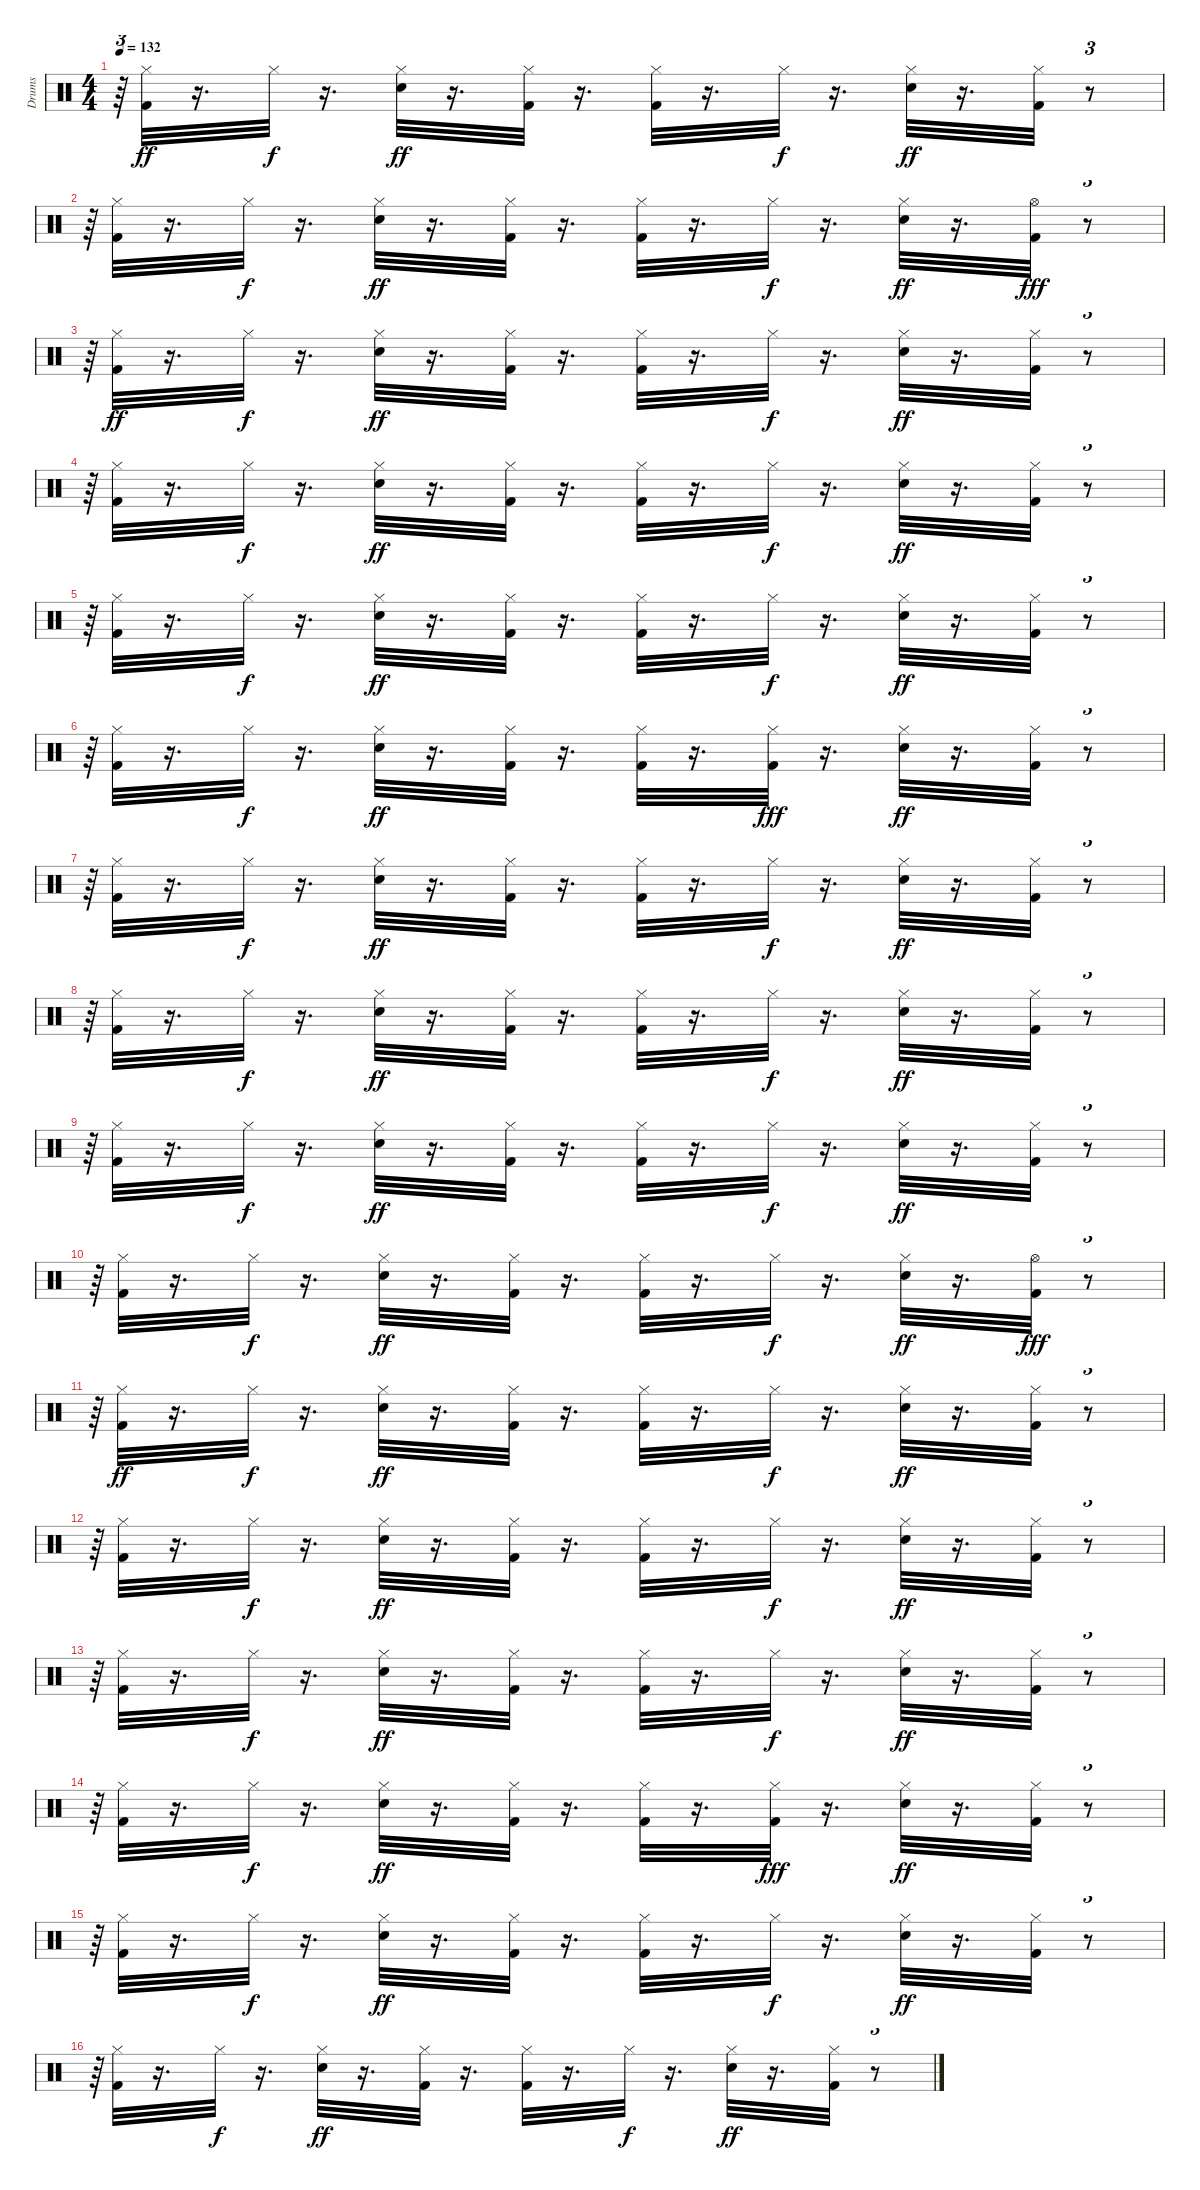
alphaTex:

\track ("Drums" "Drums") {instrument percussion}
\staff {score}
\articulation defaults
\ts (4 4)
\tempo 132
\clef neutral
\ks c
r.64{tu (3 2) dy ff} ("Kick (hit) 2" "Hi-Hat (closed)").32 r.16{d} "Hi-Hat (closed)".32{dy f} r.16{d} ("Snare (hit) 2" "Hi-Hat (closed)").32{dy ff} r.16{d} ("Kick (hit) 2" "Hi-Hat (closed)").32 r.16{d} ("Kick (hit) 2" "Hi-Hat (closed)").32 r.16{d} "Hi-Hat (closed)".32{dy f} r.16{d} ("Snare (hit) 2" "Hi-Hat (closed)").32{dy ff} r.16{d} ("Kick (hit) 2" "Hi-Hat (closed)").32 r.8{tu (3 2)} |
r.64{tu (3 2)} ("Kick (hit) 2" "Hi-Hat (closed)").32 r.16{d} "Hi-Hat (closed)".32{dy f} r.16{d} ("Snare (hit) 2" "Hi-Hat (closed)").32{dy ff} r.16{d} ("Kick (hit) 2" "Hi-Hat (closed)").32 r.16{d} ("Kick (hit) 2" "Hi-Hat (closed)").32 r.16{d} "Hi-Hat (closed)".32{dy f} r.16{d} ("Snare (hit) 2" "Hi-Hat (closed)").32{dy ff} r.16{d} ("Kick (hit) 2" "Hi-Hat (open)").32{dy fff} r.8{tu (3 2)} |
r.64{tu (3 2)} ("Kick (hit) 2" "Hi-Hat (closed)").32{dy ff} r.16{d} "Hi-Hat (closed)".32{dy f} r.16{d} ("Snare (hit) 2" "Hi-Hat (closed)").32{dy ff} r.16{d} ("Kick (hit) 2" "Hi-Hat (closed)").32 r.16{d} ("Kick (hit) 2" "Hi-Hat (closed)").32 r.16{d} "Hi-Hat (closed)".32{dy f} r.16{d} ("Snare (hit) 2" "Hi-Hat (closed)").32{dy ff} r.16{d} ("Kick (hit) 2" "Hi-Hat (closed)").32 r.8{tu (3 2)} |
r.64{tu (3 2)} ("Kick (hit) 2" "Hi-Hat (closed)").32 r.16{d} "Hi-Hat (closed)".32{dy f} r.16{d} ("Snare (hit) 2" "Hi-Hat (closed)").32{dy ff} r.16{d} ("Kick (hit) 2" "Hi-Hat (closed)").32 r.16{d} ("Kick (hit) 2" "Hi-Hat (closed)").32 r.16{d} "Hi-Hat (closed)".32{dy f} r.16{d} ("Snare (hit) 2" "Hi-Hat (closed)").32{dy ff} r.16{d} ("Kick (hit) 2" "Hi-Hat (closed)").32 r.8{tu (3 2)} |
r.64{tu (3 2)} ("Kick (hit) 2" "Hi-Hat (closed)").32 r.16{d} "Hi-Hat (closed)".32{dy f} r.16{d} ("Snare (hit) 2" "Hi-Hat (closed)").32{dy ff} r.16{d} ("Kick (hit) 2" "Hi-Hat (closed)").32 r.16{d} ("Kick (hit) 2" "Hi-Hat (closed)").32 r.16{d} "Hi-Hat (closed)".32{dy f} r.16{d} ("Snare (hit) 2" "Hi-Hat (closed)").32{dy ff} r.16{d} ("Kick (hit) 2" "Hi-Hat (closed)").32 r.8{tu (3 2)} |
r.64{tu (3 2)} ("Kick (hit) 2" "Hi-Hat (closed)").32 r.16{d} "Hi-Hat (closed)".32{dy f} r.16{d} ("Snare (hit) 2" "Hi-Hat (closed)").32{dy ff} r.16{d} ("Kick (hit) 2" "Hi-Hat (closed)").32 r.16{d} ("Kick (hit) 2" "Hi-Hat (closed)").32 r.16{d} ("Kick (hit) 2" "Hi-Hat (closed)").32{dy fff} r.16{d} ("Snare (hit) 2" "Hi-Hat (closed)").32{dy ff} r.16{d} ("Kick (hit) 2" "Hi-Hat (closed)").32 r.8{tu (3 2)} |
r.64{tu (3 2)} ("Kick (hit) 2" "Hi-Hat (closed)").32 r.16{d} "Hi-Hat (closed)".32{dy f} r.16{d} ("Snare (hit) 2" "Hi-Hat (closed)").32{dy ff} r.16{d} ("Kick (hit) 2" "Hi-Hat (closed)").32 r.16{d} ("Kick (hit) 2" "Hi-Hat (closed)").32 r.16{d} "Hi-Hat (closed)".32{dy f} r.16{d} ("Snare (hit) 2" "Hi-Hat (closed)").32{dy ff} r.16{d} ("Kick (hit) 2" "Hi-Hat (closed)").32 r.8{tu (3 2)} |
r.64{tu (3 2)} ("Kick (hit) 2" "Hi-Hat (closed)").32 r.16{d} "Hi-Hat (closed)".32{dy f} r.16{d} ("Snare (hit) 2" "Hi-Hat (closed)").32{dy ff} r.16{d} ("Kick (hit) 2" "Hi-Hat (closed)").32{volume 16} r.16{d} ("Kick (hit) 2" "Hi-Hat (closed)").32 r.16{d} "Hi-Hat (closed)".32{dy f volume 15} r.16{d} ("Snare (hit) 2" "Hi-Hat (closed)").32{dy ff volume 15} r.16{d} ("Kick (hit) 2" "Hi-Hat (closed)").32 r.8{tu (3 2)} |
r.64{tu (3 2)} ("Kick (hit) 2" "Hi-Hat (closed)").32{volume 15} r.16{d} "Hi-Hat (closed)".32{dy f} r.16{d} ("Snare (hit) 2" "Hi-Hat (closed)").32{dy ff} r.16{d} ("Kick (hit) 2" "Hi-Hat (closed)").32 r.16{d} ("Kick (hit) 2" "Hi-Hat (closed)").32 r.16{d} "Hi-Hat (closed)".32{dy f volume 15} r.16{d} ("Snare (hit) 2" "Hi-Hat (closed)").32{dy ff} r.16{d} ("Kick (hit) 2" "Hi-Hat (closed)").32{volume 15} r.8{tu (3 2)} |
r.64{tu (3 2)} ("Kick (hit) 2" "Hi-Hat (closed)").32 r.16{d} "Hi-Hat (closed)".32{dy f volume 14} r.16{d} ("Snare (hit) 2" "Hi-Hat (closed)").32{dy ff volume 14} r.16{d} ("Kick (hit) 2" "Hi-Hat (closed)").32 r.16{d} ("Kick (hit) 2" "Hi-Hat (closed)").32{volume 14} r.16{d} "Hi-Hat (closed)".32{dy f} r.16{d} ("Snare (hit) 2" "Hi-Hat (closed)").32{dy ff volume 14} r.16{d} ("Kick (hit) 2" "Hi-Hat (open)").32{dy fff} r.8{tu (3 2)} |
r.64{tu (3 2)} ("Kick (hit) 2" "Hi-Hat (closed)").32{dy ff} r.16{d} "Hi-Hat (closed)".32{dy f} r.16{d} ("Snare (hit) 2" "Hi-Hat (closed)").32{dy ff} r.16{d} ("Kick (hit) 2" "Hi-Hat (closed)").32 r.16{d} ("Kick (hit) 2" "Hi-Hat (closed)").32{volume 14} r.16{d} "Hi-Hat (closed)".32{dy f} r.16{d} ("Snare (hit) 2" "Hi-Hat (closed)").32{dy ff} r.16{d} ("Kick (hit) 2" "Hi-Hat (closed)").32 r.8{tu (3 2)} |
r.64{tu (3 2)} ("Kick (hit) 2" "Hi-Hat (closed)").32{volume 14} r.16{d} "Hi-Hat (closed)".32{dy f} r.16{d} ("Snare (hit) 2" "Hi-Hat (closed)").32{dy ff volume 13} r.16{d} ("Kick (hit) 2" "Hi-Hat (closed)").32 r.16{d} ("Kick (hit) 2" "Hi-Hat (closed)").32 r.16{d} "Hi-Hat (closed)".32{dy f} r.16{d} ("Snare (hit) 2" "Hi-Hat (closed)").32{dy ff} r.16{d} ("Kick (hit) 2" "Hi-Hat (closed)").32{volume 13} r.8{tu (3 2)} |
r.64{tu (3 2)} ("Kick (hit) 2" "Hi-Hat (closed)").32 r.16{d} "Hi-Hat (closed)".32{dy f volume 13} r.16{d} ("Snare (hit) 2" "Hi-Hat (closed)").32{dy ff} r.16{d} ("Kick (hit) 2" "Hi-Hat (closed)").32 r.16{d} ("Kick (hit) 2" "Hi-Hat (closed)").32{volume 13} r.16{d} "Hi-Hat (closed)".32{dy f} r.16{d} ("Snare (hit) 2" "Hi-Hat (closed)").32{dy ff volume 12} r.16{d} ("Kick (hit) 2" "Hi-Hat (closed)").32{volume 12} r.8{tu (3 2)} |
r.64{tu (3 2)} ("Kick (hit) 2" "Hi-Hat (closed)").32{volume 12} r.16{d} "Hi-Hat (closed)".32{dy f volume 12} r.16{d} ("Snare (hit) 2" "Hi-Hat (closed)").32{dy ff volume 12} r.16{d} ("Kick (hit) 2" "Hi-Hat (closed)").32{volume 11} r.16{d} ("Kick (hit) 2" "Hi-Hat (closed)").32 r.16{d} ("Kick (hit) 2" "Hi-Hat (closed)").32{dy fff volume 10} r.16{d} ("Snare (hit) 2" "Hi-Hat (closed)").32{dy ff volume 9} r.16{d} ("Kick (hit) 2" "Hi-Hat (closed)").32{volume 8} r.8{tu (3 2)} |
r.64{tu (3 2)} ("Kick (hit) 2" "Hi-Hat (closed)").32{volume 8} r.16{d} "Hi-Hat (closed)".32{dy f volume 7} r.16{d} ("Snare (hit) 2" "Hi-Hat (closed)").32{dy ff volume 7} r.16{d} ("Kick (hit) 2" "Hi-Hat (closed)").32 r.16{d} ("Kick (hit) 2" "Hi-Hat (closed)").32{volume 7} r.16{d} "Hi-Hat (closed)".32{dy f volume 6} r.16{d} ("Snare (hit) 2" "Hi-Hat (closed)").32{dy ff volume 6} r.16{d} ("Kick (hit) 2" "Hi-Hat (closed)").32{volume 6} r.8{tu (3 2)} |
r.64{tu (3 2)} ("Kick (hit) 2" "Hi-Hat (closed)").32{volume 6} r.16{d} "Hi-Hat (closed)".32{dy f volume 6} r.16{d} ("Snare (hit) 2" "Hi-Hat (closed)").32{dy ff volume 5} r.16{d} ("Kick (hit) 2" "Hi-Hat (closed)").32{volume 5} r.16{d} ("Kick (hit) 2" "Hi-Hat (closed)").32 r.16{d} "Hi-Hat (closed)".32{dy f volume 5} r.16{d} ("Snare (hit) 2" "Hi-Hat (closed)").32{dy ff volume 4} r.16{d} ("Kick (hit) 2" "Hi-Hat (closed)").32{volume 4} r.8{tu (3 2)}
